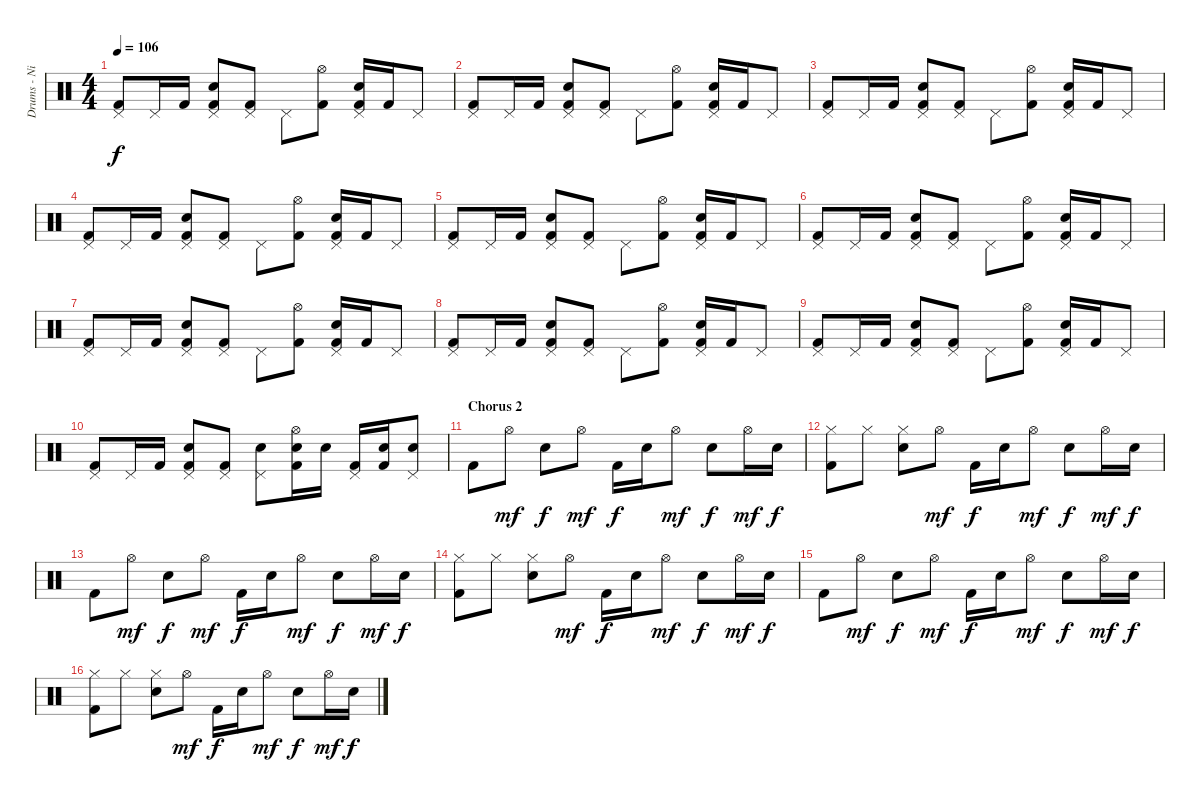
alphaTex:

\track ("Drums - Nick Van Gelder" "Drums - Ni") {instrument percussion}
\staff {score}
\articulation defaults
\ts (4 4)
\tempo 106
\clef neutral
\ks c
("Pedal Hi-Hat (hit)" "Kick (hit) 2").8{dy f} "Pedal Hi-Hat (hit)".16 "Kick (hit) 2".16 ("Pedal Hi-Hat (hit)" "Electric Snare (hit)" "Kick (hit) 2").8 ("Pedal Hi-Hat (hit)" "Kick (hit) 2").8 "Pedal Hi-Hat (hit)".8 ("Hi-Hat (open)" "Kick (hit) 2").8 ("Pedal Hi-Hat (hit)" "Electric Snare (hit)" "Kick (hit) 2").16 "Kick (hit) 2".16 "Pedal Hi-Hat (hit)".8 |
("Pedal Hi-Hat (hit)" "Kick (hit) 2").8 "Pedal Hi-Hat (hit)".16 "Kick (hit) 2".16 ("Pedal Hi-Hat (hit)" "Electric Snare (hit)" "Kick (hit) 2").8 ("Pedal Hi-Hat (hit)" "Kick (hit) 2").8 "Pedal Hi-Hat (hit)".8 ("Hi-Hat (open)" "Kick (hit) 2").8 ("Pedal Hi-Hat (hit)" "Electric Snare (hit)" "Kick (hit) 2").16 "Kick (hit) 2".16 "Pedal Hi-Hat (hit)".8 |
("Pedal Hi-Hat (hit)" "Kick (hit) 2").8 "Pedal Hi-Hat (hit)".16 "Kick (hit) 2".16 ("Pedal Hi-Hat (hit)" "Electric Snare (hit)" "Kick (hit) 2").8 ("Pedal Hi-Hat (hit)" "Kick (hit) 2").8 "Pedal Hi-Hat (hit)".8 ("Hi-Hat (open)" "Kick (hit) 2").8 ("Pedal Hi-Hat (hit)" "Electric Snare (hit)" "Kick (hit) 2").16 "Kick (hit) 2".16 "Pedal Hi-Hat (hit)".8 |
("Pedal Hi-Hat (hit)" "Kick (hit) 2").8 "Pedal Hi-Hat (hit)".16 "Kick (hit) 2".16 ("Pedal Hi-Hat (hit)" "Electric Snare (hit)" "Kick (hit) 2").8 ("Pedal Hi-Hat (hit)" "Kick (hit) 2").8 "Pedal Hi-Hat (hit)".8 ("Hi-Hat (open)" "Kick (hit) 2").8 ("Pedal Hi-Hat (hit)" "Electric Snare (hit)" "Kick (hit) 2").16 "Kick (hit) 2".16 "Pedal Hi-Hat (hit)".8 |
("Pedal Hi-Hat (hit)" "Kick (hit) 2").8 "Pedal Hi-Hat (hit)".16 "Kick (hit) 2".16 ("Pedal Hi-Hat (hit)" "Electric Snare (hit)" "Kick (hit) 2").8 ("Pedal Hi-Hat (hit)" "Kick (hit) 2").8 "Pedal Hi-Hat (hit)".8 ("Hi-Hat (open)" "Kick (hit) 2").8 ("Pedal Hi-Hat (hit)" "Electric Snare (hit)" "Kick (hit) 2").16 "Kick (hit) 2".16 "Pedal Hi-Hat (hit)".8 |
("Pedal Hi-Hat (hit)" "Kick (hit) 2").8 "Pedal Hi-Hat (hit)".16 "Kick (hit) 2".16 ("Pedal Hi-Hat (hit)" "Electric Snare (hit)" "Kick (hit) 2").8 ("Pedal Hi-Hat (hit)" "Kick (hit) 2").8 "Pedal Hi-Hat (hit)".8 ("Hi-Hat (open)" "Kick (hit) 2").8 ("Pedal Hi-Hat (hit)" "Electric Snare (hit)" "Kick (hit) 2").16 "Kick (hit) 2".16 "Pedal Hi-Hat (hit)".8 |
("Pedal Hi-Hat (hit)" "Kick (hit) 2").8 "Pedal Hi-Hat (hit)".16 "Kick (hit) 2".16 ("Pedal Hi-Hat (hit)" "Electric Snare (hit)" "Kick (hit) 2").8 ("Pedal Hi-Hat (hit)" "Kick (hit) 2").8 "Pedal Hi-Hat (hit)".8 ("Hi-Hat (open)" "Kick (hit) 2").8 ("Pedal Hi-Hat (hit)" "Electric Snare (hit)" "Kick (hit) 2").16 "Kick (hit) 2".16 "Pedal Hi-Hat (hit)".8 |
("Pedal Hi-Hat (hit)" "Kick (hit) 2").8 "Pedal Hi-Hat (hit)".16 "Kick (hit) 2".16 ("Pedal Hi-Hat (hit)" "Electric Snare (hit)" "Kick (hit) 2").8 ("Pedal Hi-Hat (hit)" "Kick (hit) 2").8 "Pedal Hi-Hat (hit)".8 ("Hi-Hat (open)" "Kick (hit) 2").8 ("Pedal Hi-Hat (hit)" "Electric Snare (hit)" "Kick (hit) 2").16 "Kick (hit) 2".16 "Pedal Hi-Hat (hit)".8 |
("Pedal Hi-Hat (hit)" "Kick (hit) 2").8 "Pedal Hi-Hat (hit)".16 "Kick (hit) 2".16 ("Pedal Hi-Hat (hit)" "Electric Snare (hit)" "Kick (hit) 2").8 ("Pedal Hi-Hat (hit)" "Kick (hit) 2").8 "Pedal Hi-Hat (hit)".8 ("Hi-Hat (open)" "Kick (hit) 2").8 ("Pedal Hi-Hat (hit)" "Electric Snare (hit)" "Kick (hit) 2").16 "Kick (hit) 2".16 "Pedal Hi-Hat (hit)".8 |
("Pedal Hi-Hat (hit)" "Kick (hit) 2").8 "Pedal Hi-Hat (hit)".16 "Kick (hit) 2".16 ("Pedal Hi-Hat (hit)" "Electric Snare (hit)" "Kick (hit) 2").8 ("Pedal Hi-Hat (hit)" "Kick (hit) 2").8 ("Pedal Hi-Hat (hit)" "Electric Snare (hit)").8 ("Hi-Hat (open)" "Electric Snare (hit)" "Kick (hit) 2").16 "Electric Snare (hit)".16 ("Pedal Hi-Hat (hit)" "Kick (hit) 2").16 ("Electric Snare (hit)" "Kick (hit) 2").16 ("Pedal Hi-Hat (hit)" "Electric Snare (hit)").8 |
\section ("" "Chorus 2")
"Kick (hit) 2".8 "Hi-Hat (open)".8{dy mf} "Electric Snare (hit)".8{dy f} "Hi-Hat (open)".8{dy mf} "Kick (hit) 2".16{dy f} "Electric Snare (hit)".16 "Hi-Hat (open)".8{dy mf} "Electric Snare (hit)".8{dy f} "Hi-Hat (open)".16{dy mf} "Electric Snare (hit)".16{dy f} |
("Hi-Hat (closed)" "Kick (hit) 2").8 "Hi-Hat (closed)".8 ("Hi-Hat (closed)" "Electric Snare (hit)").8 "Hi-Hat (open)".8{dy mf} "Kick (hit) 2".16{dy f} "Electric Snare (hit)".16 "Hi-Hat (open)".8{dy mf} "Electric Snare (hit)".8{dy f} "Hi-Hat (open)".16{dy mf} "Electric Snare (hit)".16{dy f} |
"Kick (hit) 2".8 "Hi-Hat (open)".8{dy mf} "Electric Snare (hit)".8{dy f} "Hi-Hat (open)".8{dy mf} "Kick (hit) 2".16{dy f} "Electric Snare (hit)".16 "Hi-Hat (open)".8{dy mf} "Electric Snare (hit)".8{dy f} "Hi-Hat (open)".16{dy mf} "Electric Snare (hit)".16{dy f} |
("Hi-Hat (closed)" "Kick (hit) 2").8 "Hi-Hat (closed)".8 ("Hi-Hat (closed)" "Electric Snare (hit)").8 "Hi-Hat (open)".8{dy mf} "Kick (hit) 2".16{dy f} "Electric Snare (hit)".16 "Hi-Hat (open)".8{dy mf} "Electric Snare (hit)".8{dy f} "Hi-Hat (open)".16{dy mf} "Electric Snare (hit)".16{dy f} |
"Kick (hit) 2".8 "Hi-Hat (open)".8{dy mf} "Electric Snare (hit)".8{dy f} "Hi-Hat (open)".8{dy mf} "Kick (hit) 2".16{dy f} "Electric Snare (hit)".16 "Hi-Hat (open)".8{dy mf} "Electric Snare (hit)".8{dy f} "Hi-Hat (open)".16{dy mf} "Electric Snare (hit)".16{dy f} |
("Hi-Hat (closed)" "Kick (hit) 2").8 "Hi-Hat (closed)".8 ("Hi-Hat (closed)" "Electric Snare (hit)").8 "Hi-Hat (open)".8{dy mf} "Kick (hit) 2".16{dy f} "Electric Snare (hit)".16 "Hi-Hat (open)".8{dy mf} "Electric Snare (hit)".8{dy f} "Hi-Hat (open)".16{dy mf} "Electric Snare (hit)".16{dy f}
